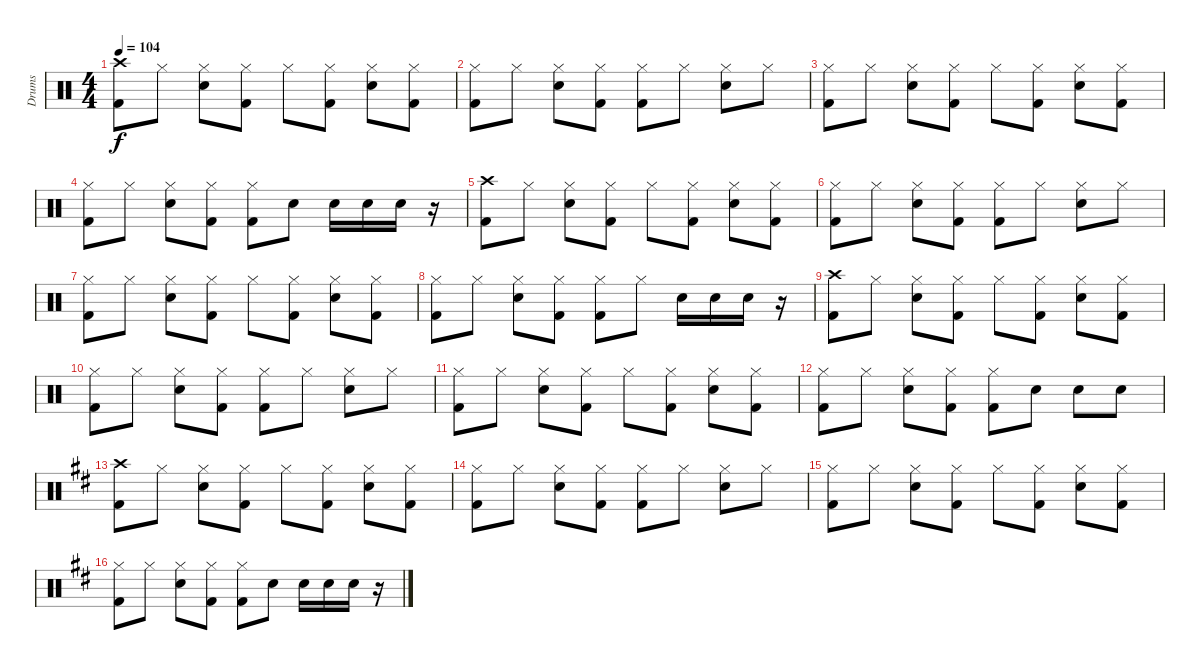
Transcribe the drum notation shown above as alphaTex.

\track ("Drums" "Drums") {instrument percussion}
\staff {score}
\articulation defaults
\ts (4 4)
\tempo 104
\clef neutral
\ks c
("Crash high (hit)" "Kick (hit) 2").8{dy f} "Hi-Hat (closed)".8 ("Hi-Hat (closed)" "Snare (hit) 2").8 ("Hi-Hat (closed)" "Kick (hit) 2").8 "Hi-Hat (closed)".8 ("Hi-Hat (closed)" "Kick (hit) 2").8 ("Hi-Hat (closed)" "Snare (hit) 2").8 ("Hi-Hat (closed)" "Kick (hit) 2").8 |
("Hi-Hat (closed)" "Kick (hit) 2").8 "Hi-Hat (closed)".8 ("Hi-Hat (closed)" "Snare (hit) 2").8 ("Hi-Hat (closed)" "Kick (hit) 2").8 ("Hi-Hat (closed)" "Kick (hit) 2").8 "Hi-Hat (closed)".8 ("Hi-Hat (closed)" "Snare (hit) 2").8 "Hi-Hat (closed)".8 |
("Hi-Hat (closed)" "Kick (hit) 2").8 "Hi-Hat (closed)".8 ("Hi-Hat (closed)" "Snare (hit) 2").8 ("Hi-Hat (closed)" "Kick (hit) 2").8 "Hi-Hat (closed)".8 ("Hi-Hat (closed)" "Kick (hit) 2").8 ("Hi-Hat (closed)" "Snare (hit) 2").8 ("Hi-Hat (closed)" "Kick (hit) 2").8 |
("Hi-Hat (closed)" "Kick (hit) 2").8 "Hi-Hat (closed)".8 ("Hi-Hat (closed)" "Snare (hit) 2").8 ("Hi-Hat (closed)" "Kick (hit) 2").8 ("Hi-Hat (closed)" "Kick (hit) 2").8 "Snare (hit) 2".8 "Snare (hit) 2".16 "Snare (hit) 2".16 "Snare (hit) 2".16 r.16 |
("Crash high (hit)" "Kick (hit) 2").8 "Hi-Hat (closed)".8 ("Hi-Hat (closed)" "Snare (hit) 2").8 ("Hi-Hat (closed)" "Kick (hit) 2").8 "Hi-Hat (closed)".8 ("Hi-Hat (closed)" "Kick (hit) 2").8 ("Hi-Hat (closed)" "Snare (hit) 2").8 ("Hi-Hat (closed)" "Kick (hit) 2").8 |
("Hi-Hat (closed)" "Kick (hit) 2").8 "Hi-Hat (closed)".8 ("Hi-Hat (closed)" "Snare (hit) 2").8 ("Hi-Hat (closed)" "Kick (hit) 2").8 ("Hi-Hat (closed)" "Kick (hit) 2").8 "Hi-Hat (closed)".8 ("Hi-Hat (closed)" "Snare (hit) 2").8 "Hi-Hat (closed)".8 |
("Hi-Hat (closed)" "Kick (hit) 2").8 "Hi-Hat (closed)".8 ("Hi-Hat (closed)" "Snare (hit) 2").8 ("Hi-Hat (closed)" "Kick (hit) 2").8 "Hi-Hat (closed)".8 ("Hi-Hat (closed)" "Kick (hit) 2").8 ("Hi-Hat (closed)" "Snare (hit) 2").8 ("Hi-Hat (closed)" "Kick (hit) 2").8 |
("Hi-Hat (closed)" "Kick (hit) 2").8 "Hi-Hat (closed)".8 ("Hi-Hat (closed)" "Snare (hit) 2").8 ("Hi-Hat (closed)" "Kick (hit) 2").8 ("Hi-Hat (closed)" "Kick (hit) 2").8 "Hi-Hat (closed)".8 "Snare (hit) 2".16 "Snare (hit) 2".16 "Snare (hit) 2".16 r.16 |
("Crash high (hit)" "Kick (hit) 2").8 "Hi-Hat (closed)".8 ("Hi-Hat (closed)" "Snare (hit) 2").8 ("Hi-Hat (closed)" "Kick (hit) 2").8 "Hi-Hat (closed)".8 ("Hi-Hat (closed)" "Kick (hit) 2").8 ("Hi-Hat (closed)" "Snare (hit) 2").8 ("Hi-Hat (closed)" "Kick (hit) 2").8 |
("Hi-Hat (closed)" "Kick (hit) 2").8 "Hi-Hat (closed)".8 ("Hi-Hat (closed)" "Snare (hit) 2").8 ("Hi-Hat (closed)" "Kick (hit) 2").8 ("Hi-Hat (closed)" "Kick (hit) 2").8 "Hi-Hat (closed)".8 ("Hi-Hat (closed)" "Snare (hit) 2").8 "Hi-Hat (closed)".8 |
("Hi-Hat (closed)" "Kick (hit) 2").8 "Hi-Hat (closed)".8 ("Hi-Hat (closed)" "Snare (hit) 2").8 ("Hi-Hat (closed)" "Kick (hit) 2").8 "Hi-Hat (closed)".8 ("Hi-Hat (closed)" "Kick (hit) 2").8 ("Hi-Hat (closed)" "Snare (hit) 2").8 ("Hi-Hat (closed)" "Kick (hit) 2").8 |
("Hi-Hat (closed)" "Kick (hit) 2").8 "Hi-Hat (closed)".8 ("Hi-Hat (closed)" "Snare (hit) 2").8 ("Hi-Hat (closed)" "Kick (hit) 2").8 ("Hi-Hat (closed)" "Kick (hit) 2").8 "Snare (hit) 2".8 "Snare (hit) 2".8 "Snare (hit) 2".8 |
\ks d
("Crash high (hit)" "Kick (hit) 2").8 "Hi-Hat (closed)".8 ("Hi-Hat (closed)" "Snare (hit) 2").8 ("Hi-Hat (closed)" "Kick (hit) 2").8 "Hi-Hat (closed)".8 ("Hi-Hat (closed)" "Kick (hit) 2").8 ("Hi-Hat (closed)" "Snare (hit) 2").8 ("Hi-Hat (closed)" "Kick (hit) 2").8 |
("Hi-Hat (closed)" "Kick (hit) 2").8 "Hi-Hat (closed)".8 ("Hi-Hat (closed)" "Snare (hit) 2").8 ("Hi-Hat (closed)" "Kick (hit) 2").8 ("Hi-Hat (closed)" "Kick (hit) 2").8 "Hi-Hat (closed)".8 ("Hi-Hat (closed)" "Snare (hit) 2").8 "Hi-Hat (closed)".8 |
("Hi-Hat (closed)" "Kick (hit) 2").8 "Hi-Hat (closed)".8 ("Hi-Hat (closed)" "Snare (hit) 2").8 ("Hi-Hat (closed)" "Kick (hit) 2").8 "Hi-Hat (closed)".8 ("Hi-Hat (closed)" "Kick (hit) 2").8 ("Hi-Hat (closed)" "Snare (hit) 2").8 ("Hi-Hat (closed)" "Kick (hit) 2").8 |
("Hi-Hat (closed)" "Kick (hit) 2").8 "Hi-Hat (closed)".8 ("Hi-Hat (closed)" "Snare (hit) 2").8 ("Hi-Hat (closed)" "Kick (hit) 2").8 ("Hi-Hat (closed)" "Kick (hit) 2").8 "Snare (hit) 2".8 "Snare (hit) 2".16 "Snare (hit) 2".16 "Snare (hit) 2".16 r.16
